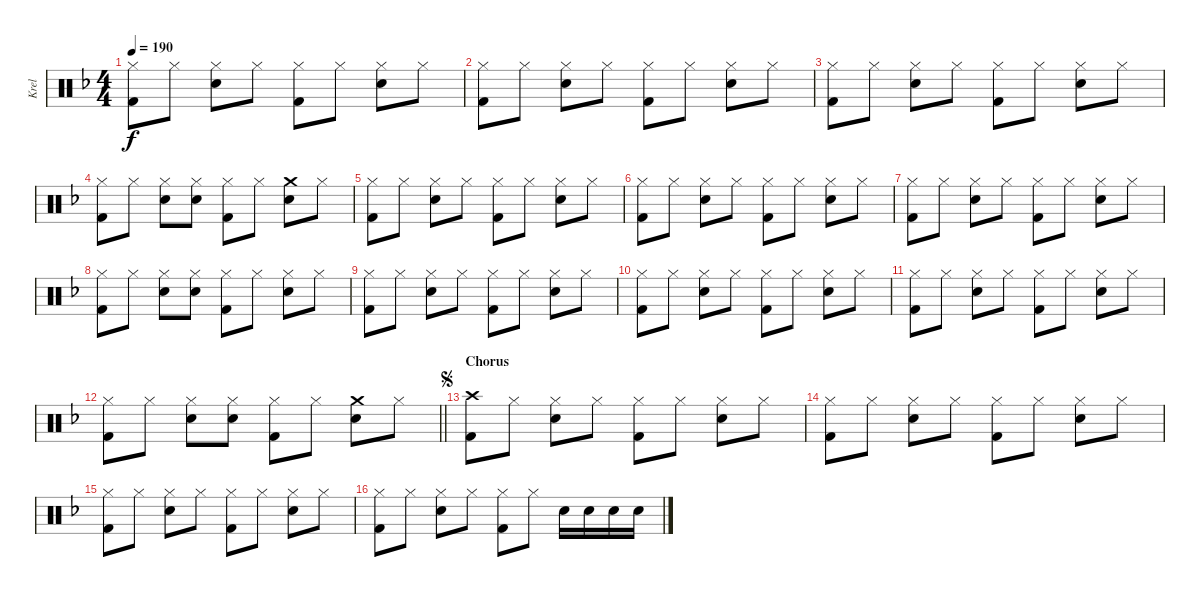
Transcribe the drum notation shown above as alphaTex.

\track ("Krel" "Krel") {instrument percussion}
\staff {score}
\articulation defaults
\ts (4 4)
\tempo 190
\clef neutral
\ks f
("Hi-Hat (closed)" "Kick (hit) 2").8{dy f} "Hi-Hat (closed)".8 ("Hi-Hat (closed)" "Snare (hit) 2").8 "Hi-Hat (closed)".8 ("Hi-Hat (closed)" "Kick (hit) 2").8 "Hi-Hat (closed)".8 ("Hi-Hat (closed)" "Snare (hit) 2").8 "Hi-Hat (closed)".8 |
("Hi-Hat (closed)" "Kick (hit) 2").8 "Hi-Hat (closed)".8 ("Hi-Hat (closed)" "Snare (hit) 2").8 "Hi-Hat (closed)".8 ("Hi-Hat (closed)" "Kick (hit) 2").8 "Hi-Hat (closed)".8 ("Hi-Hat (closed)" "Snare (hit) 2").8 "Hi-Hat (closed)".8 |
("Hi-Hat (closed)" "Kick (hit) 2").8 "Hi-Hat (closed)".8 ("Hi-Hat (closed)" "Snare (hit) 2").8 "Hi-Hat (closed)".8 ("Hi-Hat (closed)" "Kick (hit) 2").8 "Hi-Hat (closed)".8 ("Hi-Hat (closed)" "Snare (hit) 2").8 "Hi-Hat (closed)".8 |
("Hi-Hat (closed)" "Kick (hit) 2").8 "Hi-Hat (closed)".8 ("Hi-Hat (closed)" "Snare (hit) 2").8 ("Hi-Hat (closed)" "Snare (hit) 2").8 ("Hi-Hat (closed)" "Kick (hit) 2").8 "Hi-Hat (closed)".8 ("Crash medium (hit)" "Snare (hit) 2").8 "Hi-Hat (closed)".8 |
("Hi-Hat (closed)" "Kick (hit) 2").8 "Hi-Hat (closed)".8 ("Hi-Hat (closed)" "Snare (hit) 2").8 "Hi-Hat (closed)".8 ("Hi-Hat (closed)" "Kick (hit) 2").8 "Hi-Hat (closed)".8 ("Hi-Hat (closed)" "Snare (hit) 2").8 "Hi-Hat (closed)".8 |
("Hi-Hat (closed)" "Kick (hit) 2").8 "Hi-Hat (closed)".8 ("Hi-Hat (closed)" "Snare (hit) 2").8 "Hi-Hat (closed)".8 ("Hi-Hat (closed)" "Kick (hit) 2").8 "Hi-Hat (closed)".8 ("Hi-Hat (closed)" "Snare (hit) 2").8 "Hi-Hat (closed)".8 |
("Hi-Hat (closed)" "Kick (hit) 2").8 "Hi-Hat (closed)".8 ("Hi-Hat (closed)" "Snare (hit) 2").8 "Hi-Hat (closed)".8 ("Hi-Hat (closed)" "Kick (hit) 2").8 "Hi-Hat (closed)".8 ("Hi-Hat (closed)" "Snare (hit) 2").8 "Hi-Hat (closed)".8 |
("Hi-Hat (closed)" "Kick (hit) 2").8 "Hi-Hat (closed)".8 ("Hi-Hat (closed)" "Snare (hit) 2").8 ("Hi-Hat (closed)" "Snare (hit) 2").8 ("Hi-Hat (closed)" "Kick (hit) 2").8 "Hi-Hat (closed)".8 ("Hi-Hat (closed)" "Snare (hit) 2").8 "Hi-Hat (closed)".8 |
("Hi-Hat (closed)" "Kick (hit) 2").8 "Hi-Hat (closed)".8 ("Hi-Hat (closed)" "Snare (hit) 2").8 "Hi-Hat (closed)".8 ("Hi-Hat (closed)" "Kick (hit) 2").8 "Hi-Hat (closed)".8 ("Hi-Hat (closed)" "Snare (hit) 2").8 "Hi-Hat (closed)".8 |
("Hi-Hat (closed)" "Kick (hit) 2").8 "Hi-Hat (closed)".8 ("Hi-Hat (closed)" "Snare (hit) 2").8 "Hi-Hat (closed)".8 ("Hi-Hat (closed)" "Kick (hit) 2").8 "Hi-Hat (closed)".8 ("Hi-Hat (closed)" "Snare (hit) 2").8 "Hi-Hat (closed)".8 |
("Hi-Hat (closed)" "Kick (hit) 2").8 "Hi-Hat (closed)".8 ("Hi-Hat (closed)" "Snare (hit) 2").8 "Hi-Hat (closed)".8 ("Hi-Hat (closed)" "Kick (hit) 2").8 "Hi-Hat (closed)".8 ("Hi-Hat (closed)" "Snare (hit) 2").8 "Hi-Hat (closed)".8 |
\barLineRight lightlight
("Hi-Hat (closed)" "Kick (hit) 2").8 "Hi-Hat (closed)".8 ("Hi-Hat (closed)" "Snare (hit) 2").8 ("Hi-Hat (closed)" "Snare (hit) 2").8 ("Hi-Hat (closed)" "Kick (hit) 2").8 "Hi-Hat (closed)".8 ("Crash medium (hit)" "Snare (hit) 2").8 "Hi-Hat (closed)".8 |
\section ("" "Chorus")
\jump segno
("Crash high (hit)" "Kick (hit) 2").8 "Hi-Hat (closed)".8 ("Hi-Hat (closed)" "Snare (hit) 2").8 "Hi-Hat (closed)".8 ("Hi-Hat (closed)" "Kick (hit) 2").8 "Hi-Hat (closed)".8 ("Hi-Hat (closed)" "Snare (hit) 2").8 "Hi-Hat (closed)".8 |
("Hi-Hat (closed)" "Kick (hit) 2").8 "Hi-Hat (closed)".8 ("Hi-Hat (closed)" "Snare (hit) 2").8 "Hi-Hat (closed)".8 ("Hi-Hat (closed)" "Kick (hit) 2").8 "Hi-Hat (closed)".8 ("Hi-Hat (closed)" "Snare (hit) 2").8 "Hi-Hat (closed)".8 |
("Hi-Hat (closed)" "Kick (hit) 2").8 "Hi-Hat (closed)".8 ("Hi-Hat (closed)" "Snare (hit) 2").8 "Hi-Hat (closed)".8 ("Hi-Hat (closed)" "Kick (hit) 2").8 "Hi-Hat (closed)".8 ("Hi-Hat (closed)" "Snare (hit) 2").8 "Hi-Hat (closed)".8 |
("Hi-Hat (closed)" "Kick (hit) 2").8 "Hi-Hat (closed)".8 ("Hi-Hat (closed)" "Snare (hit) 2").8 "Hi-Hat (closed)".8 ("Hi-Hat (closed)" "Kick (hit) 2").8 "Hi-Hat (closed)".8 "Snare (hit) 2".16 "Snare (hit) 2".16 "Snare (hit) 2".16 "Snare (hit) 2".16
